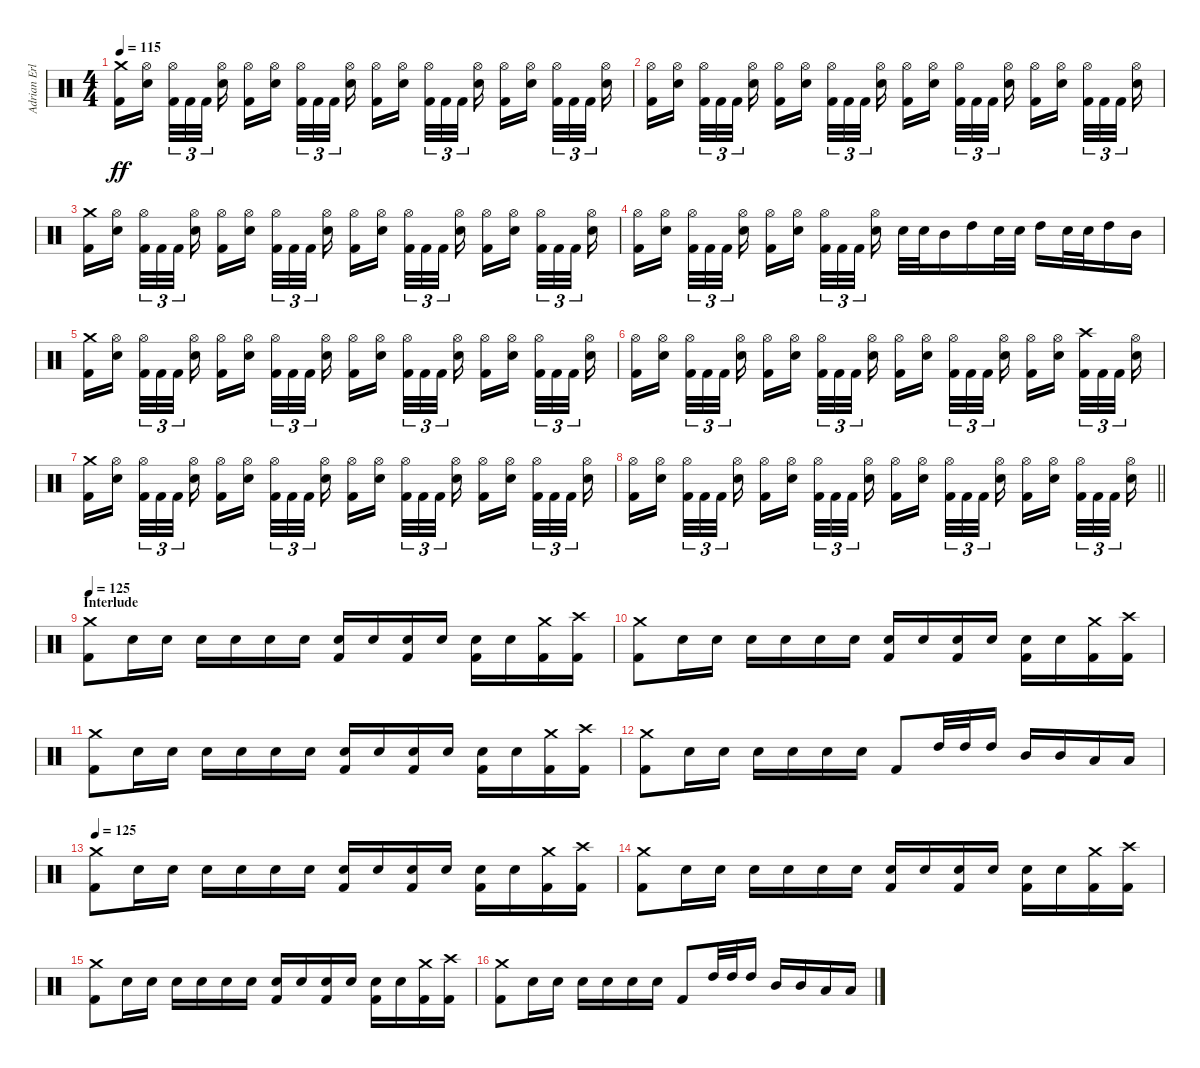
\track ("Adrian Erlandsson" "Adrian Erl") {instrument percussion}
\staff {score}
\articulation defaults
\ts (4 4)
\tempo 115
\clef neutral
\ks c
("Kick (hit) 2" "Crash medium (hit)").16{dy ff} ("Electric Snare (hit)" "Hi-Hat (open)").16{beam splitsecondary} ("Kick (hit) 2" "Hi-Hat (open)").32{tu (3 2)} "Kick (hit) 2".32{tu (3 2)} "Kick (hit) 2".32{tu (3 2) beam splitsecondary} ("Electric Snare (hit)" "Hi-Hat (open)").16 ("Kick (hit) 2" "Hi-Hat (open)").16 ("Electric Snare (hit)" "Hi-Hat (open)").16{beam splitsecondary} ("Kick (hit) 2" "Hi-Hat (open)").32{tu (3 2)} "Kick (hit) 2".32{tu (3 2)} "Kick (hit) 2".32{tu (3 2) beam splitsecondary} ("Electric Snare (hit)" "Hi-Hat (open)").16 ("Kick (hit) 2" "Hi-Hat (open)").16 ("Electric Snare (hit)" "Hi-Hat (open)").16{beam splitsecondary} ("Kick (hit) 2" "Hi-Hat (open)").32{tu (3 2)} "Kick (hit) 2".32{tu (3 2)} "Kick (hit) 2".32{tu (3 2) beam splitsecondary} ("Electric Snare (hit)" "Hi-Hat (open)").16 ("Kick (hit) 2" "Hi-Hat (open)").16 ("Electric Snare (hit)" "Hi-Hat (open)").16{beam splitsecondary} ("Kick (hit) 2" "Hi-Hat (open)").32{tu (3 2)} "Kick (hit) 2".32{tu (3 2)} "Kick (hit) 2".32{tu (3 2) beam splitsecondary} ("Electric Snare (hit)" "Hi-Hat (open)").16 |
("Kick (hit) 2" "Hi-Hat (open)").16 ("Electric Snare (hit)" "Hi-Hat (open)").16{beam splitsecondary} ("Kick (hit) 2" "Hi-Hat (open)").32{tu (3 2)} "Kick (hit) 2".32{tu (3 2)} "Kick (hit) 2".32{tu (3 2) beam splitsecondary} ("Electric Snare (hit)" "Hi-Hat (open)").16 ("Kick (hit) 2" "Hi-Hat (open)").16 ("Electric Snare (hit)" "Hi-Hat (open)").16{beam splitsecondary} ("Kick (hit) 2" "Hi-Hat (open)").32{tu (3 2)} "Kick (hit) 2".32{tu (3 2)} "Kick (hit) 2".32{tu (3 2) beam splitsecondary} ("Electric Snare (hit)" "Hi-Hat (open)").16 ("Kick (hit) 2" "Hi-Hat (open)").16 ("Electric Snare (hit)" "Hi-Hat (open)").16{beam splitsecondary} ("Kick (hit) 2" "Hi-Hat (open)").32{tu (3 2)} "Kick (hit) 2".32{tu (3 2)} "Kick (hit) 2".32{tu (3 2) beam splitsecondary} ("Electric Snare (hit)" "Hi-Hat (open)").16 ("Kick (hit) 2" "Hi-Hat (open)").16 ("Electric Snare (hit)" "Hi-Hat (open)").16{beam splitsecondary} ("Kick (hit) 2" "Hi-Hat (open)").32{tu (3 2)} "Kick (hit) 2".32{tu (3 2)} "Kick (hit) 2".32{tu (3 2) beam splitsecondary} ("Electric Snare (hit)" "Hi-Hat (open)").16 |
("Kick (hit) 2" "Crash medium (hit)").16 ("Electric Snare (hit)" "Hi-Hat (open)").16{beam splitsecondary} ("Kick (hit) 2" "Hi-Hat (open)").32{tu (3 2)} "Kick (hit) 2".32{tu (3 2)} "Kick (hit) 2".32{tu (3 2) beam splitsecondary} ("Electric Snare (hit)" "Hi-Hat (open)").16 ("Kick (hit) 2" "Hi-Hat (open)").16 ("Electric Snare (hit)" "Hi-Hat (open)").16{beam splitsecondary} ("Kick (hit) 2" "Hi-Hat (open)").32{tu (3 2)} "Kick (hit) 2".32{tu (3 2)} "Kick (hit) 2".32{tu (3 2) beam splitsecondary} ("Electric Snare (hit)" "Hi-Hat (open)").16 ("Kick (hit) 2" "Hi-Hat (open)").16 ("Electric Snare (hit)" "Hi-Hat (open)").16{beam splitsecondary} ("Kick (hit) 2" "Hi-Hat (open)").32{tu (3 2)} "Kick (hit) 2".32{tu (3 2)} "Kick (hit) 2".32{tu (3 2) beam splitsecondary} ("Electric Snare (hit)" "Hi-Hat (open)").16 ("Kick (hit) 2" "Hi-Hat (open)").16 ("Electric Snare (hit)" "Hi-Hat (open)").16{beam splitsecondary} ("Kick (hit) 2" "Hi-Hat (open)").32{tu (3 2)} "Kick (hit) 2".32{tu (3 2)} "Kick (hit) 2".32{tu (3 2) beam splitsecondary} ("Electric Snare (hit)" "Hi-Hat (open)").16 |
("Kick (hit) 2" "Hi-Hat (open)").16 ("Electric Snare (hit)" "Hi-Hat (open)").16{beam splitsecondary} ("Kick (hit) 2" "Hi-Hat (open)").32{tu (3 2)} "Kick (hit) 2".32{tu (3 2)} "Kick (hit) 2".32{tu (3 2) beam splitsecondary} ("Electric Snare (hit)" "Hi-Hat (open)").16 ("Kick (hit) 2" "Hi-Hat (open)").16 ("Electric Snare (hit)" "Hi-Hat (open)").16{beam splitsecondary} ("Kick (hit) 2" "Hi-Hat (open)").32{tu (3 2)} "Kick (hit) 2".32{tu (3 2)} "Kick (hit) 2".32{tu (3 2) beam splitsecondary} ("Electric Snare (hit)" "Hi-Hat (open)").16 "Electric Snare (hit)".32 "Electric Snare (hit)".32 "Mid Tom (hit)".16 "High Tom (hit)".16 "Electric Snare (hit)".32 "Electric Snare (hit)".32 "High Tom (hit)".16 "Electric Snare (hit)".32 "Electric Snare (hit)".32 "High Tom (hit)".16 "Mid Tom (hit)".16 |
("Kick (hit) 2" "Crash medium (hit)").16 ("Electric Snare (hit)" "Hi-Hat (open)").16{beam splitsecondary} ("Kick (hit) 2" "Hi-Hat (open)").32{tu (3 2)} "Kick (hit) 2".32{tu (3 2)} "Kick (hit) 2".32{tu (3 2) beam splitsecondary} ("Electric Snare (hit)" "Hi-Hat (open)").16 ("Kick (hit) 2" "Hi-Hat (open)").16 ("Electric Snare (hit)" "Hi-Hat (open)").16{beam splitsecondary} ("Kick (hit) 2" "Hi-Hat (open)").32{tu (3 2)} "Kick (hit) 2".32{tu (3 2)} "Kick (hit) 2".32{tu (3 2) beam splitsecondary} ("Electric Snare (hit)" "Hi-Hat (open)").16 ("Kick (hit) 2" "Hi-Hat (open)").16 ("Electric Snare (hit)" "Hi-Hat (open)").16{beam splitsecondary} ("Kick (hit) 2" "Hi-Hat (open)").32{tu (3 2)} "Kick (hit) 2".32{tu (3 2)} "Kick (hit) 2".32{tu (3 2) beam splitsecondary} ("Electric Snare (hit)" "Hi-Hat (open)").16 ("Kick (hit) 2" "Hi-Hat (open)").16 ("Electric Snare (hit)" "Hi-Hat (open)").16{beam splitsecondary} ("Kick (hit) 2" "Hi-Hat (open)").32{tu (3 2)} "Kick (hit) 2".32{tu (3 2)} "Kick (hit) 2".32{tu (3 2) beam splitsecondary} ("Electric Snare (hit)" "Hi-Hat (open)").16 |
("Kick (hit) 2" "Hi-Hat (open)").16 ("Electric Snare (hit)" "Hi-Hat (open)").16{beam splitsecondary} ("Kick (hit) 2" "Hi-Hat (open)").32{tu (3 2)} "Kick (hit) 2".32{tu (3 2)} "Kick (hit) 2".32{tu (3 2) beam splitsecondary} ("Electric Snare (hit)" "Hi-Hat (open)").16 ("Kick (hit) 2" "Hi-Hat (open)").16 ("Electric Snare (hit)" "Hi-Hat (open)").16{beam splitsecondary} ("Kick (hit) 2" "Hi-Hat (open)").32{tu (3 2)} "Kick (hit) 2".32{tu (3 2)} "Kick (hit) 2".32{tu (3 2) beam splitsecondary} ("Electric Snare (hit)" "Hi-Hat (open)").16 ("Kick (hit) 2" "Hi-Hat (open)").16 ("Electric Snare (hit)" "Hi-Hat (open)").16{beam splitsecondary} ("Kick (hit) 2" "Hi-Hat (open)").32{tu (3 2)} "Kick (hit) 2".32{tu (3 2)} "Kick (hit) 2".32{tu (3 2) beam splitsecondary} ("Electric Snare (hit)" "Hi-Hat (open)").16 ("Kick (hit) 2" "Hi-Hat (open)").16 ("Electric Snare (hit)" "Hi-Hat (open)").16{beam splitsecondary} ("Kick (hit) 2" "Crash high (hit)").32{tu (3 2)} "Kick (hit) 2".32{tu (3 2)} "Kick (hit) 2".32{tu (3 2) beam splitsecondary} ("Electric Snare (hit)" "Hi-Hat (open)").16 |
("Kick (hit) 2" "Crash medium (hit)").16 ("Electric Snare (hit)" "Hi-Hat (open)").16{beam splitsecondary} ("Kick (hit) 2" "Hi-Hat (open)").32{tu (3 2)} "Kick (hit) 2".32{tu (3 2)} "Kick (hit) 2".32{tu (3 2) beam splitsecondary} ("Electric Snare (hit)" "Hi-Hat (open)").16 ("Kick (hit) 2" "Hi-Hat (open)").16 ("Electric Snare (hit)" "Hi-Hat (open)").16{beam splitsecondary} ("Kick (hit) 2" "Hi-Hat (open)").32{tu (3 2)} "Kick (hit) 2".32{tu (3 2)} "Kick (hit) 2".32{tu (3 2) beam splitsecondary} ("Electric Snare (hit)" "Hi-Hat (open)").16 ("Kick (hit) 2" "Hi-Hat (open)").16 ("Electric Snare (hit)" "Hi-Hat (open)").16{beam splitsecondary} ("Kick (hit) 2" "Hi-Hat (open)").32{tu (3 2)} "Kick (hit) 2".32{tu (3 2)} "Kick (hit) 2".32{tu (3 2) beam splitsecondary} ("Electric Snare (hit)" "Hi-Hat (open)").16 ("Kick (hit) 2" "Hi-Hat (open)").16 ("Electric Snare (hit)" "Hi-Hat (open)").16{beam splitsecondary} ("Kick (hit) 2" "Hi-Hat (open)").32{tu (3 2)} "Kick (hit) 2".32{tu (3 2)} "Kick (hit) 2".32{tu (3 2) beam splitsecondary} ("Electric Snare (hit)" "Hi-Hat (open)").16 |
\barLineRight lightlight
("Kick (hit) 2" "Hi-Hat (open)").16 ("Electric Snare (hit)" "Hi-Hat (open)").16{beam splitsecondary} ("Kick (hit) 2" "Hi-Hat (open)").32{tu (3 2)} "Kick (hit) 2".32{tu (3 2)} "Kick (hit) 2".32{tu (3 2) beam splitsecondary} ("Electric Snare (hit)" "Hi-Hat (open)").16 ("Kick (hit) 2" "Hi-Hat (open)").16 ("Electric Snare (hit)" "Hi-Hat (open)").16{beam splitsecondary} ("Kick (hit) 2" "Hi-Hat (open)").32{tu (3 2)} "Kick (hit) 2".32{tu (3 2)} "Kick (hit) 2".32{tu (3 2) beam splitsecondary} ("Electric Snare (hit)" "Hi-Hat (open)").16 ("Kick (hit) 2" "Hi-Hat (open)").16 ("Electric Snare (hit)" "Hi-Hat (open)").16{beam splitsecondary} ("Kick (hit) 2" "Hi-Hat (open)").32{tu (3 2)} "Kick (hit) 2".32{tu (3 2)} "Kick (hit) 2".32{tu (3 2) beam splitsecondary} ("Electric Snare (hit)" "Hi-Hat (open)").16 ("Kick (hit) 2" "Hi-Hat (open)").16 ("Electric Snare (hit)" "Hi-Hat (open)").16{beam splitsecondary} ("Kick (hit) 2" "Hi-Hat (open)").32{tu (3 2)} "Kick (hit) 2".32{tu (3 2)} "Kick (hit) 2".32{tu (3 2) beam splitsecondary} ("Electric Snare (hit)" "Hi-Hat (open)").16 |
\section ("" "Interlude")
\tempo 125
("Kick (hit) 2" "Crash medium (hit)").8 "Electric Snare (hit)".16 "Electric Snare (hit)".16 "Electric Snare (hit)".16 "Electric Snare (hit)".16 "Electric Snare (hit)".16 "Electric Snare (hit)".16 ("Kick (hit) 2" "Electric Snare (hit)").16 "Electric Snare (hit)".16 ("Kick (hit) 2" "Electric Snare (hit)").16 "Electric Snare (hit)".16 ("Kick (hit) 2" "Electric Snare (hit)").16 "Electric Snare (hit)".16 ("Kick (hit) 2" "Crash medium (hit)").16 ("Kick (hit) 2" "Crash high (hit)").16 |
("Kick (hit) 2" "Crash medium (hit)").8 "Electric Snare (hit)".16 "Electric Snare (hit)".16 "Electric Snare (hit)".16 "Electric Snare (hit)".16 "Electric Snare (hit)".16 "Electric Snare (hit)".16 ("Kick (hit) 2" "Electric Snare (hit)").16 "Electric Snare (hit)".16 ("Kick (hit) 2" "Electric Snare (hit)").16 "Electric Snare (hit)".16 ("Kick (hit) 2" "Electric Snare (hit)").16 "Electric Snare (hit)".16 ("Kick (hit) 2" "Crash medium (hit)").16 ("Kick (hit) 2" "Crash high (hit)").16 |
("Kick (hit) 2" "Crash medium (hit)").8 "Electric Snare (hit)".16 "Electric Snare (hit)".16 "Electric Snare (hit)".16 "Electric Snare (hit)".16 "Electric Snare (hit)".16 "Electric Snare (hit)".16 ("Kick (hit) 2" "Electric Snare (hit)").16 "Electric Snare (hit)".16 ("Kick (hit) 2" "Electric Snare (hit)").16 "Electric Snare (hit)".16 ("Kick (hit) 2" "Electric Snare (hit)").16 "Electric Snare (hit)".16 ("Kick (hit) 2" "Crash medium (hit)").16 ("Kick (hit) 2" "Crash high (hit)").16 |
("Kick (hit) 2" "Crash medium (hit)").8 "Electric Snare (hit)".16 "Electric Snare (hit)".16 "Electric Snare (hit)".16 "Electric Snare (hit)".16 "Electric Snare (hit)".16 "Electric Snare (hit)".16 "Kick (hit) 2".8 "High Tom (hit)".32 "High Tom (hit)".32 "High Tom (hit)".16 "Mid Tom (hit)".16 "Mid Tom (hit)".16 "Low Tom (hit)".16 "Low Tom (hit)".16 |
\tempo 125
("Kick (hit) 2" "Crash medium (hit)").8 "Electric Snare (hit)".16 "Electric Snare (hit)".16 "Electric Snare (hit)".16 "Electric Snare (hit)".16 "Electric Snare (hit)".16 "Electric Snare (hit)".16 ("Kick (hit) 2" "Electric Snare (hit)").16 "Electric Snare (hit)".16 ("Kick (hit) 2" "Electric Snare (hit)").16 "Electric Snare (hit)".16 ("Kick (hit) 2" "Electric Snare (hit)").16 "Electric Snare (hit)".16 ("Kick (hit) 2" "Crash medium (hit)").16 ("Kick (hit) 2" "Crash high (hit)").16 |
("Kick (hit) 2" "Crash medium (hit)").8 "Electric Snare (hit)".16 "Electric Snare (hit)".16 "Electric Snare (hit)".16 "Electric Snare (hit)".16 "Electric Snare (hit)".16 "Electric Snare (hit)".16 ("Kick (hit) 2" "Electric Snare (hit)").16 "Electric Snare (hit)".16 ("Kick (hit) 2" "Electric Snare (hit)").16 "Electric Snare (hit)".16 ("Kick (hit) 2" "Electric Snare (hit)").16 "Electric Snare (hit)".16 ("Kick (hit) 2" "Crash medium (hit)").16 ("Kick (hit) 2" "Crash high (hit)").16 |
("Kick (hit) 2" "Crash medium (hit)").8 "Electric Snare (hit)".16 "Electric Snare (hit)".16 "Electric Snare (hit)".16 "Electric Snare (hit)".16 "Electric Snare (hit)".16 "Electric Snare (hit)".16 ("Kick (hit) 2" "Electric Snare (hit)").16 "Electric Snare (hit)".16 ("Kick (hit) 2" "Electric Snare (hit)").16 "Electric Snare (hit)".16 ("Kick (hit) 2" "Electric Snare (hit)").16 "Electric Snare (hit)".16 ("Kick (hit) 2" "Crash medium (hit)").16 ("Kick (hit) 2" "Crash high (hit)").16 |
("Kick (hit) 2" "Crash medium (hit)").8 "Electric Snare (hit)".16 "Electric Snare (hit)".16 "Electric Snare (hit)".16 "Electric Snare (hit)".16 "Electric Snare (hit)".16 "Electric Snare (hit)".16 "Kick (hit) 2".8 "High Tom (hit)".32 "High Tom (hit)".32 "High Tom (hit)".16 "Mid Tom (hit)".16 "Mid Tom (hit)".16 "Low Tom (hit)".16 "Low Tom (hit)".16
